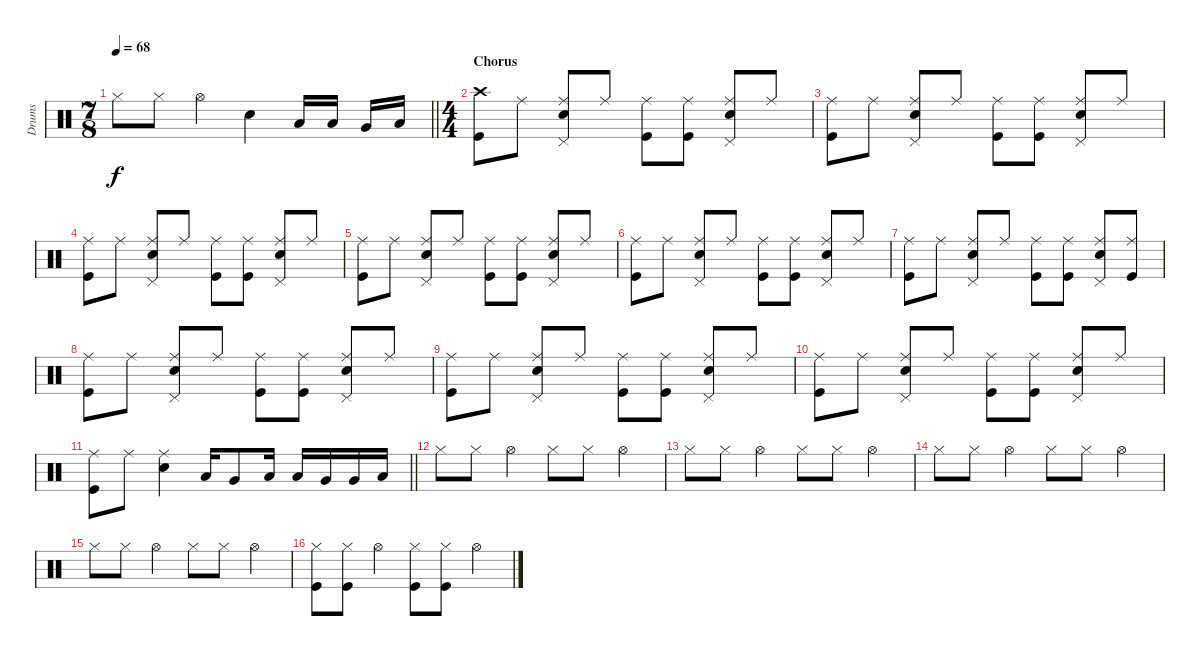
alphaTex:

\track ("Drums" "Drums") {instrument percussion}
\staff {score}
\articulation defaults
\ts (7 8)
\tempo 68
\clef neutral
\barLineRight lightlight
\ks c "Hi-Hat (closed)".8{dy f} "Hi-Hat (closed)".8 "Hi-Hat (open)".4 "Snare (hit) 2".4 "Low Tom (hit)".16 "Low Tom (hit)".16 "Very Low Tom (hit)".16 "Low Floor Tom (hit)".16
|
\ts (4 4)
\section ("" "Chorus")
("Crash high (hit)" "Kick (hit)").8 "Ride (middle)".8 ("Ride (middle)" "Snare (hit) 2" "Pedal Hi-Hat (hit)").8 "Ride (middle)".8 ("Ride (middle)" "Kick (hit)").8 ("Ride (middle)" "Kick (hit)").8 ("Ride (middle)" "Snare (hit) 2" "Pedal Hi-Hat (hit)").8 "Ride (middle)".8 |
("Ride (middle)" "Kick (hit)").8 "Ride (middle)".8 ("Ride (middle)" "Snare (hit) 2" "Pedal Hi-Hat (hit)").8 "Ride (middle)".8 ("Ride (middle)" "Kick (hit)").8 ("Ride (middle)" "Kick (hit)").8 ("Ride (middle)" "Snare (hit) 2" "Pedal Hi-Hat (hit)").8 "Ride (middle)".8 |
("Ride (middle)" "Kick (hit)").8 "Ride (middle)".8 ("Ride (middle)" "Snare (hit) 2" "Pedal Hi-Hat (hit)").8 "Ride (middle)".8 ("Ride (middle)" "Kick (hit)").8 ("Ride (middle)" "Kick (hit)").8 ("Ride (middle)" "Snare (hit) 2" "Pedal Hi-Hat (hit)").8 "Ride (middle)".8 |
("Ride (middle)" "Kick (hit)").8 "Ride (middle)".8 ("Ride (middle)" "Snare (hit) 2" "Pedal Hi-Hat (hit)").8 "Ride (middle)".8 ("Ride (middle)" "Kick (hit)").8 ("Ride (middle)" "Kick (hit)").8 ("Ride (middle)" "Snare (hit) 2" "Pedal Hi-Hat (hit)").8 "Ride (middle)".8 |
("Ride (middle)" "Kick (hit)").8 "Ride (middle)".8 ("Ride (middle)" "Snare (hit) 2" "Pedal Hi-Hat (hit)").8 "Ride (middle)".8 ("Ride (middle)" "Kick (hit)").8 ("Ride (middle)" "Kick (hit)").8 ("Ride (middle)" "Snare (hit) 2" "Pedal Hi-Hat (hit)").8 "Ride (middle)".8 |
("Ride (middle)" "Kick (hit)").8 "Ride (middle)".8 ("Ride (middle)" "Snare (hit) 2" "Pedal Hi-Hat (hit)").8 "Ride (middle)".8 ("Ride (middle)" "Kick (hit)").8 ("Ride (middle)" "Kick (hit)").8 ("Ride (middle)" "Snare (hit) 2" "Pedal Hi-Hat (hit)").8 ("Ride (middle)" "Kick (hit)").8 |
("Ride (middle)" "Kick (hit)").8 "Ride (middle)".8 ("Ride (middle)" "Snare (hit) 2" "Pedal Hi-Hat (hit)").8 "Ride (middle)".8 ("Ride (middle)" "Kick (hit)").8 ("Ride (middle)" "Kick (hit)").8 ("Ride (middle)" "Snare (hit) 2" "Pedal Hi-Hat (hit)").8 "Ride (middle)".8 |
("Ride (middle)" "Kick (hit)").8 "Ride (middle)".8 ("Ride (middle)" "Snare (hit) 2" "Pedal Hi-Hat (hit)").8 "Ride (middle)".8 ("Ride (middle)" "Kick (hit)").8 ("Ride (middle)" "Kick (hit)").8 ("Ride (middle)" "Snare (hit) 2" "Pedal Hi-Hat (hit)").8 "Ride (middle)".8 |
("Ride (middle)" "Kick (hit)").8 "Ride (middle)".8 ("Ride (middle)" "Snare (hit) 2" "Pedal Hi-Hat (hit)").8 "Ride (middle)".8 ("Ride (middle)" "Kick (hit)").8 ("Ride (middle)" "Kick (hit)").8 ("Ride (middle)" "Snare (hit) 2" "Pedal Hi-Hat (hit)").8 "Ride (middle)".8 |
\barLineRight lightlight
("Ride (middle)" "Kick (hit)").8 "Ride (middle)".8 ("Ride (middle)" "Snare (hit) 2").4 "Low Tom (hit)".16 "Very Low Tom (hit)".8 "Low Tom (hit)".16 "Low Tom (hit)".16 "Very Low Tom (hit)".16 "Very Low Tom (hit)".16 "Low Floor Tom (hit)".16 |
"Hi-Hat (closed)".8 "Hi-Hat (closed)".8 "Hi-Hat (open)".4 "Hi-Hat (closed)".8 "Hi-Hat (closed)".8 "Hi-Hat (open)".4 |
"Hi-Hat (closed)".8 "Hi-Hat (closed)".8 "Hi-Hat (open)".4 "Hi-Hat (closed)".8 "Hi-Hat (closed)".8 "Hi-Hat (open)".4 |
"Hi-Hat (closed)".8 "Hi-Hat (closed)".8 "Hi-Hat (open)".4 "Hi-Hat (closed)".8 "Hi-Hat (closed)".8 "Hi-Hat (open)".4 |
"Hi-Hat (closed)".8 "Hi-Hat (closed)".8 "Hi-Hat (open)".4 "Hi-Hat (closed)".8 "Hi-Hat (closed)".8 "Hi-Hat (open)".4 |
("Hi-Hat (closed)" "Kick (hit)").8 ("Hi-Hat (closed)" "Kick (hit)").8 "Hi-Hat (open)".4 ("Hi-Hat (closed)" "Kick (hit)").8 ("Hi-Hat (closed)" "Kick (hit)").8 "Hi-Hat (open)".4
